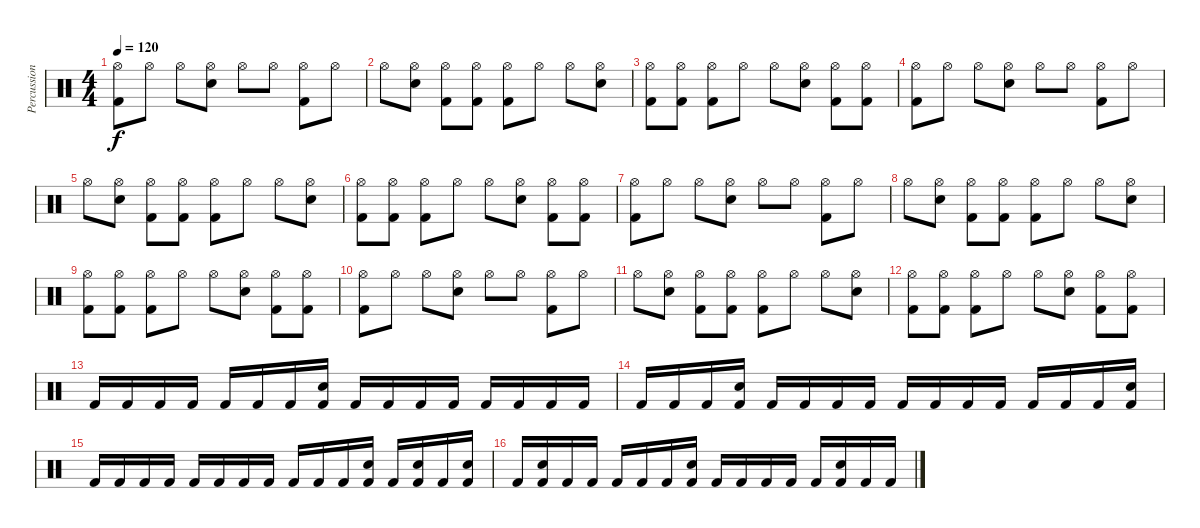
\track ("Percussion" "Percussion") {instrument percussion}
\staff {score}
\articulation defaults
\ts (4 4)
\tempo 120
\clef neutral
\ks c
("Hi-Hat (open)" "Kick (hit) 2").8{dy f} "Hi-Hat (open)".8 "Hi-Hat (open)".8 ("Hi-Hat (open)" "Electric Snare (hit)").8 "Hi-Hat (open)".8 "Hi-Hat (open)".8 ("Hi-Hat (open)" "Kick (hit) 2").8 "Hi-Hat (open)".8 |
"Hi-Hat (open)".8 ("Hi-Hat (open)" "Electric Snare (hit)").8 ("Hi-Hat (open)" "Kick (hit) 2").8 ("Hi-Hat (open)" "Kick (hit) 2").8 ("Hi-Hat (open)" "Kick (hit) 2").8 "Hi-Hat (open)".8 "Hi-Hat (open)".8 ("Hi-Hat (open)" "Electric Snare (hit)").8 |
("Hi-Hat (open)" "Kick (hit) 2").8 ("Hi-Hat (open)" "Kick (hit) 2").8 ("Hi-Hat (open)" "Kick (hit) 2").8 "Hi-Hat (open)".8 "Hi-Hat (open)".8 ("Hi-Hat (open)" "Electric Snare (hit)").8 ("Hi-Hat (open)" "Kick (hit) 2").8 ("Hi-Hat (open)" "Kick (hit) 2").8 |
("Hi-Hat (open)" "Kick (hit) 2").8 "Hi-Hat (open)".8 "Hi-Hat (open)".8 ("Hi-Hat (open)" "Electric Snare (hit)").8 "Hi-Hat (open)".8 "Hi-Hat (open)".8 ("Hi-Hat (open)" "Kick (hit) 2").8 "Hi-Hat (open)".8 |
"Hi-Hat (open)".8 ("Hi-Hat (open)" "Electric Snare (hit)").8 ("Hi-Hat (open)" "Kick (hit) 2").8 ("Hi-Hat (open)" "Kick (hit) 2").8 ("Hi-Hat (open)" "Kick (hit) 2").8 "Hi-Hat (open)".8 "Hi-Hat (open)".8 ("Hi-Hat (open)" "Electric Snare (hit)").8 |
("Hi-Hat (open)" "Kick (hit) 2").8 ("Hi-Hat (open)" "Kick (hit) 2").8 ("Hi-Hat (open)" "Kick (hit) 2").8 "Hi-Hat (open)".8 "Hi-Hat (open)".8 ("Hi-Hat (open)" "Electric Snare (hit)").8 ("Hi-Hat (open)" "Kick (hit) 2").8 ("Hi-Hat (open)" "Kick (hit) 2").8 |
("Hi-Hat (open)" "Kick (hit) 2").8 "Hi-Hat (open)".8 "Hi-Hat (open)".8 ("Hi-Hat (open)" "Electric Snare (hit)").8 "Hi-Hat (open)".8 "Hi-Hat (open)".8 ("Hi-Hat (open)" "Kick (hit) 2").8 "Hi-Hat (open)".8 |
"Hi-Hat (open)".8 ("Hi-Hat (open)" "Electric Snare (hit)").8 ("Hi-Hat (open)" "Kick (hit) 2").8 ("Hi-Hat (open)" "Kick (hit) 2").8 ("Hi-Hat (open)" "Kick (hit) 2").8 "Hi-Hat (open)".8 "Hi-Hat (open)".8 ("Hi-Hat (open)" "Electric Snare (hit)").8 |
("Hi-Hat (open)" "Kick (hit) 2").8 ("Hi-Hat (open)" "Kick (hit) 2").8 ("Hi-Hat (open)" "Kick (hit) 2").8 "Hi-Hat (open)".8 "Hi-Hat (open)".8 ("Hi-Hat (open)" "Electric Snare (hit)").8 ("Hi-Hat (open)" "Kick (hit) 2").8 ("Hi-Hat (open)" "Kick (hit) 2").8 |
("Hi-Hat (open)" "Kick (hit) 2").8 "Hi-Hat (open)".8 "Hi-Hat (open)".8 ("Hi-Hat (open)" "Electric Snare (hit)").8 "Hi-Hat (open)".8 "Hi-Hat (open)".8 ("Hi-Hat (open)" "Kick (hit) 2").8 "Hi-Hat (open)".8 |
"Hi-Hat (open)".8 ("Hi-Hat (open)" "Electric Snare (hit)").8 ("Hi-Hat (open)" "Kick (hit) 2").8 ("Hi-Hat (open)" "Kick (hit) 2").8 ("Hi-Hat (open)" "Kick (hit) 2").8 "Hi-Hat (open)".8 "Hi-Hat (open)".8 ("Hi-Hat (open)" "Electric Snare (hit)").8 |
("Hi-Hat (open)" "Kick (hit) 2").8 ("Hi-Hat (open)" "Kick (hit) 2").8 ("Hi-Hat (open)" "Kick (hit) 2").8 "Hi-Hat (open)".8 "Hi-Hat (open)".8 ("Hi-Hat (open)" "Electric Snare (hit)").8 ("Hi-Hat (open)" "Kick (hit) 2").8 ("Hi-Hat (open)" "Kick (hit) 2").8 |
"Kick (hit) 2".16 "Kick (hit) 2".16 "Kick (hit) 2".16 "Kick (hit) 2".16 "Kick (hit) 2".16 "Kick (hit) 2".16 "Kick (hit) 2".16 ("Electric Snare (hit)" "Kick (hit) 2").16 "Kick (hit) 2".16 "Kick (hit) 2".16 "Kick (hit) 2".16 "Kick (hit) 2".16 "Kick (hit) 2".16 "Kick (hit) 2".16 "Kick (hit) 2".16 "Kick (hit) 2".16 |
"Kick (hit) 2".16 "Kick (hit) 2".16 "Kick (hit) 2".16 ("Electric Snare (hit)" "Kick (hit) 2").16 "Kick (hit) 2".16 "Kick (hit) 2".16 "Kick (hit) 2".16 "Kick (hit) 2".16 "Kick (hit) 2".16 "Kick (hit) 2".16 "Kick (hit) 2".16 "Kick (hit) 2".16 "Kick (hit) 2".16 "Kick (hit) 2".16 "Kick (hit) 2".16 ("Electric Snare (hit)" "Kick (hit) 2").16 |
"Kick (hit) 2".16 "Kick (hit) 2".16 "Kick (hit) 2".16 "Kick (hit) 2".16 "Kick (hit) 2".16 "Kick (hit) 2".16 "Kick (hit) 2".16 "Kick (hit) 2".16 "Kick (hit) 2".16 "Kick (hit) 2".16 "Kick (hit) 2".16 ("Electric Snare (hit)" "Kick (hit) 2").16 "Kick (hit) 2".16 ("Electric Snare (hit)" "Kick (hit) 2").16 "Kick (hit) 2".16 ("Electric Snare (hit)" "Kick (hit) 2").16 |
"Kick (hit) 2".16 ("Electric Snare (hit)" "Kick (hit) 2").16 "Kick (hit) 2".16 "Kick (hit) 2".16 "Kick (hit) 2".16 "Kick (hit) 2".16 "Kick (hit) 2".16 ("Electric Snare (hit)" "Kick (hit) 2").16 "Kick (hit) 2".16 "Kick (hit) 2".16 "Kick (hit) 2".16 "Kick (hit) 2".16 "Kick (hit) 2".16 ("Electric Snare (hit)" "Kick (hit) 2").16 "Kick (hit) 2".16 "Kick (hit) 2".16
